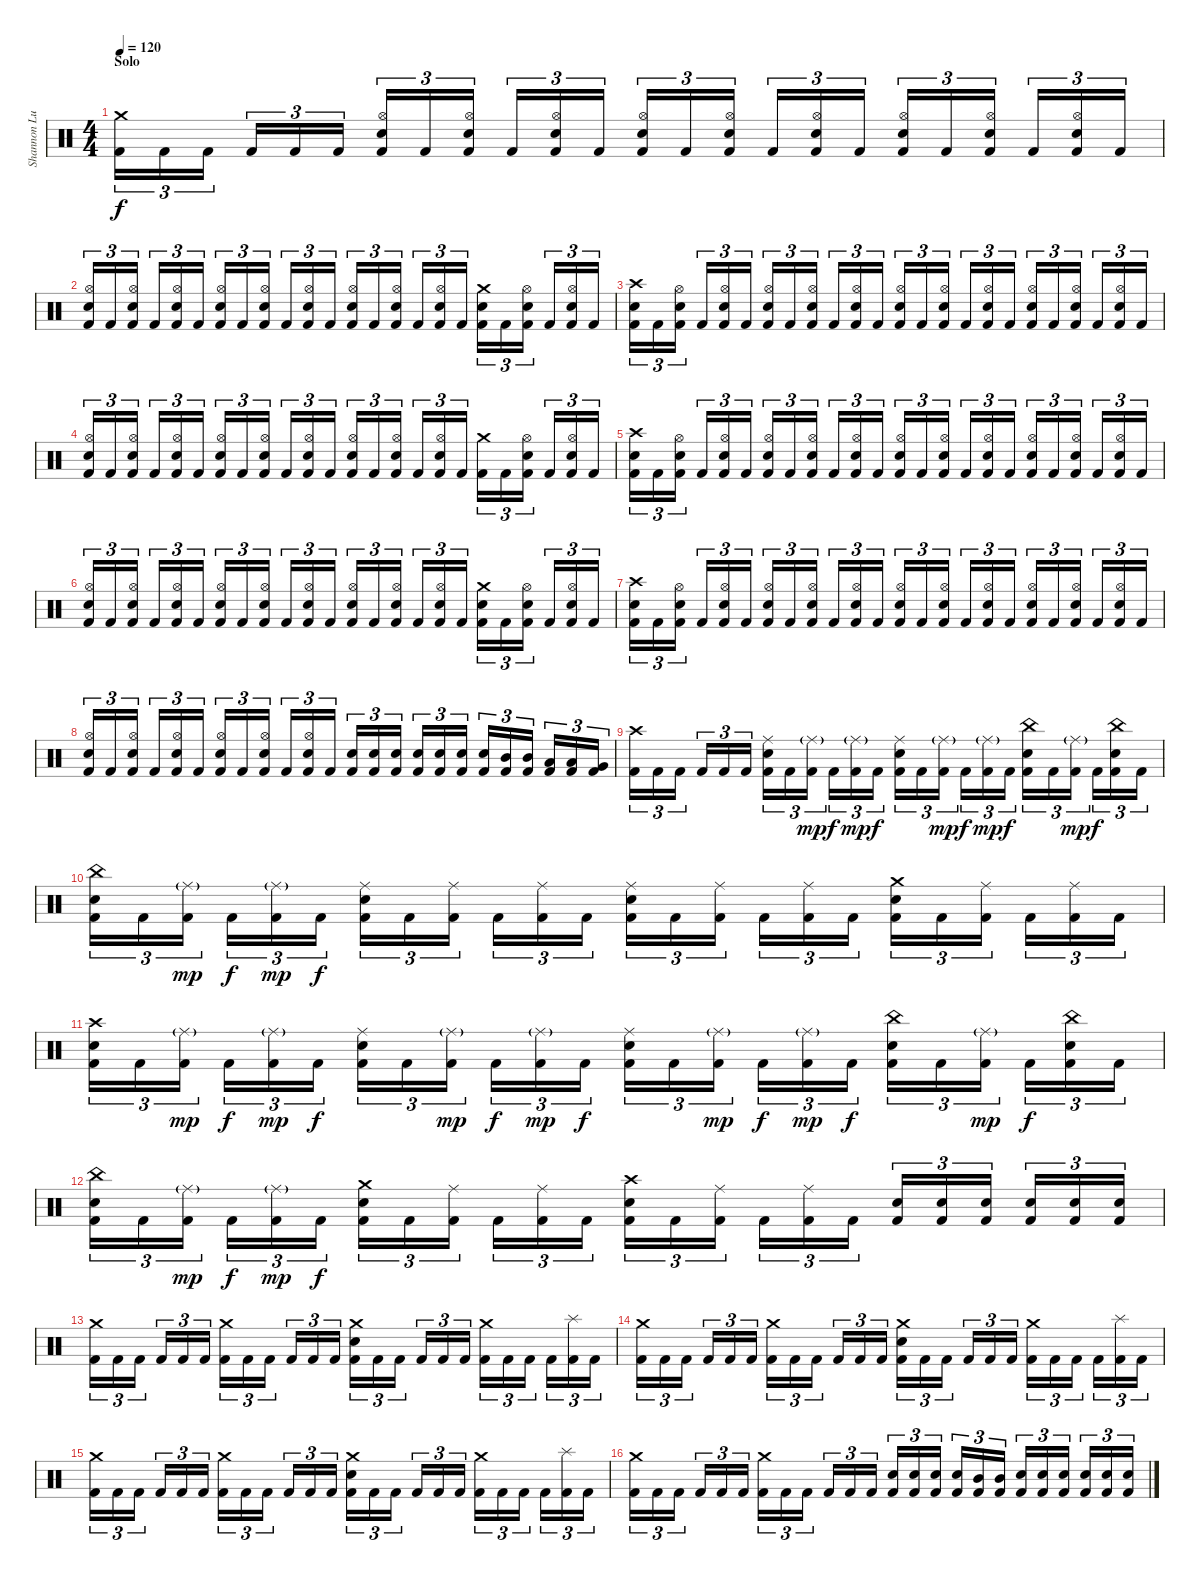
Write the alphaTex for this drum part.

\track ("Shannon Lucas (Drums)" "Shannon Lu") {instrument percussion}
\staff {score}
\articulation defaults
\ts (4 4)
\section ("" "Solo")
\tempo 120
\clef neutral
\ks c
("Crash medium (hit)" "Kick (hit) 2").16{tu (3 2) dy f} "Kick (hit) 2".16{tu (3 2)} "Kick (hit) 2".16{tu (3 2)} "Kick (hit) 2".16{tu (3 2)} "Kick (hit) 2".16{tu (3 2)} "Kick (hit) 2".16{tu (3 2)} ("Hi-Hat (open)" "Snare (hit) 2" "Kick (hit) 2").16{tu (3 2)} "Kick (hit) 2".16{tu (3 2)} ("Hi-Hat (open)" "Snare (hit) 2" "Kick (hit) 2").16{tu (3 2)} "Kick (hit) 2".16{tu (3 2)} ("Hi-Hat (open)" "Snare (hit) 2" "Kick (hit) 2").16{tu (3 2)} "Kick (hit) 2".16{tu (3 2)} ("Hi-Hat (open)" "Snare (hit) 2" "Kick (hit) 2").16{tu (3 2)} "Kick (hit) 2".16{tu (3 2)} ("Hi-Hat (open)" "Snare (hit) 2" "Kick (hit) 2").16{tu (3 2)} "Kick (hit) 2".16{tu (3 2)} ("Hi-Hat (open)" "Snare (hit) 2" "Kick (hit) 2").16{tu (3 2)} "Kick (hit) 2".16{tu (3 2)} ("Hi-Hat (open)" "Snare (hit) 2" "Kick (hit) 2").16{tu (3 2)} "Kick (hit) 2".16{tu (3 2)} ("Hi-Hat (open)" "Snare (hit) 2" "Kick (hit) 2").16{tu (3 2)} "Kick (hit) 2".16{tu (3 2)} ("Hi-Hat (open)" "Snare (hit) 2" "Kick (hit) 2").16{tu (3 2)} "Kick (hit) 2".16{tu (3 2)} |
("Hi-Hat (open)" "Snare (hit) 2" "Kick (hit) 2").16{tu (3 2)} "Kick (hit) 2".16{tu (3 2)} ("Hi-Hat (open)" "Snare (hit) 2" "Kick (hit) 2").16{tu (3 2)} "Kick (hit) 2".16{tu (3 2)} ("Hi-Hat (open)" "Snare (hit) 2" "Kick (hit) 2").16{tu (3 2)} "Kick (hit) 2".16{tu (3 2)} ("Hi-Hat (open)" "Snare (hit) 2" "Kick (hit) 2").16{tu (3 2)} "Kick (hit) 2".16{tu (3 2)} ("Hi-Hat (open)" "Snare (hit) 2" "Kick (hit) 2").16{tu (3 2)} "Kick (hit) 2".16{tu (3 2)} ("Hi-Hat (open)" "Snare (hit) 2" "Kick (hit) 2").16{tu (3 2)} "Kick (hit) 2".16{tu (3 2)} ("Hi-Hat (open)" "Snare (hit) 2" "Kick (hit) 2").16{tu (3 2)} "Kick (hit) 2".16{tu (3 2)} ("Hi-Hat (open)" "Snare (hit) 2" "Kick (hit) 2").16{tu (3 2)} "Kick (hit) 2".16{tu (3 2)} ("Hi-Hat (open)" "Snare (hit) 2" "Kick (hit) 2").16{tu (3 2)} "Kick (hit) 2".16{tu (3 2)} ("Crash medium (hit)" "Snare (hit) 2" "Kick (hit) 2").16{tu (3 2)} "Kick (hit) 2".16{tu (3 2)} ("Hi-Hat (open)" "Snare (hit) 2" "Kick (hit) 2").16{tu (3 2)} "Kick (hit) 2".16{tu (3 2)} ("Hi-Hat (open)" "Snare (hit) 2" "Kick (hit) 2").16{tu (3 2)} "Kick (hit) 2".16{tu (3 2)} |
("Crash high (hit)" "Snare (hit) 2" "Kick (hit) 2").16{tu (3 2)} "Kick (hit) 2".16{tu (3 2)} ("Hi-Hat (open)" "Snare (hit) 2" "Kick (hit) 2").16{tu (3 2)} "Kick (hit) 2".16{tu (3 2)} ("Hi-Hat (open)" "Snare (hit) 2" "Kick (hit) 2").16{tu (3 2)} "Kick (hit) 2".16{tu (3 2)} ("Hi-Hat (open)" "Snare (hit) 2" "Kick (hit) 2").16{tu (3 2)} "Kick (hit) 2".16{tu (3 2)} ("Hi-Hat (open)" "Snare (hit) 2" "Kick (hit) 2").16{tu (3 2)} "Kick (hit) 2".16{tu (3 2)} ("Hi-Hat (open)" "Snare (hit) 2" "Kick (hit) 2").16{tu (3 2)} "Kick (hit) 2".16{tu (3 2)} ("Hi-Hat (open)" "Snare (hit) 2" "Kick (hit) 2").16{tu (3 2)} "Kick (hit) 2".16{tu (3 2)} ("Hi-Hat (open)" "Snare (hit) 2" "Kick (hit) 2").16{tu (3 2)} "Kick (hit) 2".16{tu (3 2)} ("Hi-Hat (open)" "Snare (hit) 2" "Kick (hit) 2").16{tu (3 2)} "Kick (hit) 2".16{tu (3 2)} ("Hi-Hat (open)" "Snare (hit) 2" "Kick (hit) 2").16{tu (3 2)} "Kick (hit) 2".16{tu (3 2)} ("Hi-Hat (open)" "Snare (hit) 2" "Kick (hit) 2").16{tu (3 2)} "Kick (hit) 2".16{tu (3 2)} ("Hi-Hat (open)" "Snare (hit) 2" "Kick (hit) 2").16{tu (3 2)} "Kick (hit) 2".16{tu (3 2)} |
("Hi-Hat (open)" "Snare (hit) 2" "Kick (hit) 2").16{tu (3 2)} "Kick (hit) 2".16{tu (3 2)} ("Hi-Hat (open)" "Snare (hit) 2" "Kick (hit) 2").16{tu (3 2)} "Kick (hit) 2".16{tu (3 2)} ("Hi-Hat (open)" "Snare (hit) 2" "Kick (hit) 2").16{tu (3 2)} "Kick (hit) 2".16{tu (3 2)} ("Hi-Hat (open)" "Snare (hit) 2" "Kick (hit) 2").16{tu (3 2)} "Kick (hit) 2".16{tu (3 2)} ("Hi-Hat (open)" "Snare (hit) 2" "Kick (hit) 2").16{tu (3 2)} "Kick (hit) 2".16{tu (3 2)} ("Hi-Hat (open)" "Snare (hit) 2" "Kick (hit) 2").16{tu (3 2)} "Kick (hit) 2".16{tu (3 2)} ("Hi-Hat (open)" "Snare (hit) 2" "Kick (hit) 2").16{tu (3 2)} "Kick (hit) 2".16{tu (3 2)} ("Hi-Hat (open)" "Snare (hit) 2" "Kick (hit) 2").16{tu (3 2)} "Kick (hit) 2".16{tu (3 2)} ("Hi-Hat (open)" "Snare (hit) 2" "Kick (hit) 2").16{tu (3 2)} "Kick (hit) 2".16{tu (3 2)} ("Crash medium (hit)" "Kick (hit) 2").16{tu (3 2)} "Kick (hit) 2".16{tu (3 2)} ("Hi-Hat (open)" "Snare (hit) 2" "Kick (hit) 2").16{tu (3 2)} "Kick (hit) 2".16{tu (3 2)} ("Hi-Hat (open)" "Snare (hit) 2" "Kick (hit) 2").16{tu (3 2)} "Kick (hit) 2".16{tu (3 2)} |
("Crash high (hit)" "Snare (hit) 2" "Kick (hit) 2").16{tu (3 2)} "Kick (hit) 2".16{tu (3 2)} ("Hi-Hat (open)" "Snare (hit) 2" "Kick (hit) 2").16{tu (3 2)} "Kick (hit) 2".16{tu (3 2)} ("Hi-Hat (open)" "Snare (hit) 2" "Kick (hit) 2").16{tu (3 2)} "Kick (hit) 2".16{tu (3 2)} ("Hi-Hat (open)" "Snare (hit) 2" "Kick (hit) 2").16{tu (3 2)} "Kick (hit) 2".16{tu (3 2)} ("Hi-Hat (open)" "Snare (hit) 2" "Kick (hit) 2").16{tu (3 2)} "Kick (hit) 2".16{tu (3 2)} ("Hi-Hat (open)" "Snare (hit) 2" "Kick (hit) 2").16{tu (3 2)} "Kick (hit) 2".16{tu (3 2)} ("Hi-Hat (open)" "Snare (hit) 2" "Kick (hit) 2").16{tu (3 2)} "Kick (hit) 2".16{tu (3 2)} ("Hi-Hat (open)" "Snare (hit) 2" "Kick (hit) 2").16{tu (3 2)} "Kick (hit) 2".16{tu (3 2)} ("Hi-Hat (open)" "Snare (hit) 2" "Kick (hit) 2").16{tu (3 2)} "Kick (hit) 2".16{tu (3 2)} ("Hi-Hat (open)" "Snare (hit) 2" "Kick (hit) 2").16{tu (3 2)} "Kick (hit) 2".16{tu (3 2)} ("Hi-Hat (open)" "Snare (hit) 2" "Kick (hit) 2").16{tu (3 2)} "Kick (hit) 2".16{tu (3 2)} ("Hi-Hat (open)" "Snare (hit) 2" "Kick (hit) 2").16{tu (3 2)} "Kick (hit) 2".16{tu (3 2)} |
("Hi-Hat (open)" "Snare (hit) 2" "Kick (hit) 2").16{tu (3 2)} "Kick (hit) 2".16{tu (3 2)} ("Hi-Hat (open)" "Snare (hit) 2" "Kick (hit) 2").16{tu (3 2)} "Kick (hit) 2".16{tu (3 2)} ("Hi-Hat (open)" "Snare (hit) 2" "Kick (hit) 2").16{tu (3 2)} "Kick (hit) 2".16{tu (3 2)} ("Hi-Hat (open)" "Snare (hit) 2" "Kick (hit) 2").16{tu (3 2)} "Kick (hit) 2".16{tu (3 2)} ("Hi-Hat (open)" "Snare (hit) 2" "Kick (hit) 2").16{tu (3 2)} "Kick (hit) 2".16{tu (3 2)} ("Hi-Hat (open)" "Snare (hit) 2" "Kick (hit) 2").16{tu (3 2)} "Kick (hit) 2".16{tu (3 2)} ("Hi-Hat (open)" "Snare (hit) 2" "Kick (hit) 2").16{tu (3 2)} "Kick (hit) 2".16{tu (3 2)} ("Hi-Hat (open)" "Snare (hit) 2" "Kick (hit) 2").16{tu (3 2)} "Kick (hit) 2".16{tu (3 2)} ("Hi-Hat (open)" "Snare (hit) 2" "Kick (hit) 2").16{tu (3 2)} "Kick (hit) 2".16{tu (3 2)} ("Crash medium (hit)" "Snare (hit) 2" "Kick (hit) 2").16{tu (3 2)} "Kick (hit) 2".16{tu (3 2)} ("Hi-Hat (open)" "Snare (hit) 2" "Kick (hit) 2").16{tu (3 2)} "Kick (hit) 2".16{tu (3 2)} ("Hi-Hat (open)" "Snare (hit) 2" "Kick (hit) 2").16{tu (3 2)} "Kick (hit) 2".16{tu (3 2)} |
("Crash high (hit)" "Snare (hit) 2" "Kick (hit) 2").16{tu (3 2)} "Kick (hit) 2".16{tu (3 2)} ("Hi-Hat (open)" "Snare (hit) 2" "Kick (hit) 2").16{tu (3 2)} "Kick (hit) 2".16{tu (3 2)} ("Hi-Hat (open)" "Snare (hit) 2" "Kick (hit) 2").16{tu (3 2)} "Kick (hit) 2".16{tu (3 2)} ("Hi-Hat (open)" "Snare (hit) 2" "Kick (hit) 2").16{tu (3 2)} "Kick (hit) 2".16{tu (3 2)} ("Hi-Hat (open)" "Snare (hit) 2" "Kick (hit) 2").16{tu (3 2)} "Kick (hit) 2".16{tu (3 2)} ("Hi-Hat (open)" "Snare (hit) 2" "Kick (hit) 2").16{tu (3 2)} "Kick (hit) 2".16{tu (3 2)} ("Hi-Hat (open)" "Snare (hit) 2" "Kick (hit) 2").16{tu (3 2)} "Kick (hit) 2".16{tu (3 2)} ("Hi-Hat (open)" "Snare (hit) 2" "Kick (hit) 2").16{tu (3 2)} "Kick (hit) 2".16{tu (3 2)} ("Hi-Hat (open)" "Snare (hit) 2" "Kick (hit) 2").16{tu (3 2)} "Kick (hit) 2".16{tu (3 2)} ("Hi-Hat (open)" "Snare (hit) 2" "Kick (hit) 2").16{tu (3 2)} "Kick (hit) 2".16{tu (3 2)} ("Hi-Hat (open)" "Snare (hit) 2" "Kick (hit) 2").16{tu (3 2)} "Kick (hit) 2".16{tu (3 2)} ("Hi-Hat (open)" "Snare (hit) 2" "Kick (hit) 2").16{tu (3 2)} "Kick (hit) 2".16{tu (3 2)} |
("Hi-Hat (open)" "Snare (hit) 2" "Kick (hit) 2").16{tu (3 2)} "Kick (hit) 2".16{tu (3 2)} ("Hi-Hat (open)" "Snare (hit) 2" "Kick (hit) 2").16{tu (3 2)} "Kick (hit) 2".16{tu (3 2)} ("Hi-Hat (open)" "Snare (hit) 2" "Kick (hit) 2").16{tu (3 2)} "Kick (hit) 2".16{tu (3 2)} ("Hi-Hat (open)" "Snare (hit) 2" "Kick (hit) 2").16{tu (3 2)} "Kick (hit) 2".16{tu (3 2)} ("Hi-Hat (open)" "Snare (hit) 2" "Kick (hit) 2").16{tu (3 2)} "Kick (hit) 2".16{tu (3 2)} ("Hi-Hat (open)" "Snare (hit) 2" "Kick (hit) 2").16{tu (3 2)} "Kick (hit) 2".16{tu (3 2)} ("Snare (hit) 2" "Kick (hit) 2").16{tu (3 2)} ("Snare (hit) 2" "Kick (hit) 2").16{tu (3 2)} ("Snare (hit) 2" "Kick (hit) 2").16{tu (3 2)} ("Snare (hit) 2" "Kick (hit) 2").16{tu (3 2)} ("Snare (hit) 2" "Kick (hit) 2").16{tu (3 2)} ("Snare (hit) 2" "Kick (hit) 2").16{tu (3 2)} ("Snare (hit) 2" "Kick (hit) 2").16{tu (3 2)} ("Mid Tom (hit)" "Kick (hit) 2").16{tu (3 2)} ("Mid Tom (hit)" "Kick (hit) 2").16{tu (3 2)} ("Low Tom (hit)" "Kick (hit) 2").16{tu (3 2)} ("Low Tom (hit)" "Kick (hit) 2").16{tu (3 2)} ("Very Low Tom (hit)" "Kick (hit) 2").16{tu (3 2)} |
("Crash high (hit)" "Kick (hit) 2").16{tu (3 2)} "Kick (hit) 2".16{tu (3 2)} "Kick (hit) 2".16{tu (3 2)} "Kick (hit) 2".16{tu (3 2)} "Kick (hit) 2".16{tu (3 2)} "Kick (hit) 2".16{tu (3 2)} ("Ride (middle)" "Snare (hit) 2" "Kick (hit) 2").16{tu (3 2)} "Kick (hit) 2".16{tu (3 2)} ("Ride (middle)"{g} "Kick (hit) 2").16{tu (3 2) dy mp} "Kick (hit) 2".16{tu (3 2) dy f} ("Ride (middle)"{g} "Kick (hit) 2").16{tu (3 2) dy mp} "Kick (hit) 2".16{tu (3 2) dy f} ("Ride (middle)" "Snare (hit) 2" "Kick (hit) 2").16{tu (3 2)} "Kick (hit) 2".16{tu (3 2)} ("Ride (middle)"{g} "Kick (hit) 2").16{tu (3 2) dy mp} "Kick (hit) 2".16{tu (3 2) dy f} ("Ride (middle)"{g} "Kick (hit) 2").16{tu (3 2) dy mp} "Kick (hit) 2".16{tu (3 2) dy f} ("China (hit)" "Snare (hit) 2" "Kick (hit) 2").16{tu (3 2)} "Kick (hit) 2".16{tu (3 2)} ("Ride (middle)"{g} "Kick (hit) 2").16{tu (3 2) dy mp} "Kick (hit) 2".16{tu (3 2) dy f} ("China (hit)" "Snare (hit) 2" "Kick (hit) 2").16{tu (3 2)} "Kick (hit) 2".16{tu (3 2)} |
("China (hit)" "Snare (hit) 2" "Kick (hit) 2").16{tu (3 2)} "Kick (hit) 2".16{tu (3 2)} ("Ride (middle)"{g} "Kick (hit) 2").16{tu (3 2) dy mp} "Kick (hit) 2".16{tu (3 2) dy f} ("Ride (middle)"{g} "Kick (hit) 2").16{tu (3 2) dy mp} "Kick (hit) 2".16{tu (3 2) dy f} ("Ride (middle)" "Snare (hit) 2" "Kick (hit) 2").16{tu (3 2)} "Kick (hit) 2".16{tu (3 2)} ("Ride (middle)" "Kick (hit) 2").16{tu (3 2)} "Kick (hit) 2".16{tu (3 2)} ("Ride (middle)" "Kick (hit) 2").16{tu (3 2)} "Kick (hit) 2".16{tu (3 2)} ("Ride (middle)" "Snare (hit) 2" "Kick (hit) 2").16{tu (3 2)} "Kick (hit) 2".16{tu (3 2)} ("Ride (middle)" "Kick (hit) 2").16{tu (3 2)} "Kick (hit) 2".16{tu (3 2)} ("Ride (middle)" "Kick (hit) 2").16{tu (3 2)} "Kick (hit) 2".16{tu (3 2)} ("Crash medium (hit)" "Snare (hit) 2" "Kick (hit) 2").16{tu (3 2)} "Kick (hit) 2".16{tu (3 2)} ("Ride (middle)" "Kick (hit) 2").16{tu (3 2)} "Kick (hit) 2".16{tu (3 2)} ("Ride (middle)" "Kick (hit) 2").16{tu (3 2)} "Kick (hit) 2".16{tu (3 2)} |
("Crash high (hit)" "Snare (hit) 2" "Kick (hit) 2").16{tu (3 2)} "Kick (hit) 2".16{tu (3 2)} ("Ride (middle)"{g} "Kick (hit) 2").16{tu (3 2) dy mp} "Kick (hit) 2".16{tu (3 2) dy f} ("Ride (middle)"{g} "Kick (hit) 2").16{tu (3 2) dy mp} "Kick (hit) 2".16{tu (3 2) dy f} ("Ride (middle)" "Snare (hit) 2" "Kick (hit) 2").16{tu (3 2)} "Kick (hit) 2".16{tu (3 2)} ("Ride (middle)"{g} "Kick (hit) 2").16{tu (3 2) dy mp} "Kick (hit) 2".16{tu (3 2) dy f} ("Ride (middle)"{g} "Kick (hit) 2").16{tu (3 2) dy mp} "Kick (hit) 2".16{tu (3 2) dy f} ("Ride (middle)" "Snare (hit) 2" "Kick (hit) 2").16{tu (3 2)} "Kick (hit) 2".16{tu (3 2)} ("Ride (middle)"{g} "Kick (hit) 2").16{tu (3 2) dy mp} "Kick (hit) 2".16{tu (3 2) dy f} ("Ride (middle)"{g} "Kick (hit) 2").16{tu (3 2) dy mp} "Kick (hit) 2".16{tu (3 2) dy f} ("China (hit)" "Snare (hit) 2" "Kick (hit) 2").16{tu (3 2)} "Kick (hit) 2".16{tu (3 2)} ("Ride (middle)"{g} "Kick (hit) 2").16{tu (3 2) dy mp} "Kick (hit) 2".16{tu (3 2) dy f} ("China (hit)" "Snare (hit) 2" "Kick (hit) 2").16{tu (3 2)} "Kick (hit) 2".16{tu (3 2)} |
("China (hit)" "Snare (hit) 2" "Kick (hit) 2").16{tu (3 2)} "Kick (hit) 2".16{tu (3 2)} ("Ride (middle)"{g} "Kick (hit) 2").16{tu (3 2) dy mp} "Kick (hit) 2".16{tu (3 2) dy f} ("Ride (middle)"{g} "Kick (hit) 2").16{tu (3 2) dy mp} "Kick (hit) 2".16{tu (3 2) dy f} ("Crash medium (hit)" "Snare (hit) 2" "Kick (hit) 2").16{tu (3 2)} "Kick (hit) 2".16{tu (3 2)} ("Ride (middle)" "Kick (hit) 2").16{tu (3 2)} "Kick (hit) 2".16{tu (3 2)} ("Ride (middle)" "Kick (hit) 2").16{tu (3 2)} "Kick (hit) 2".16{tu (3 2)} ("Crash high (hit)" "Snare (hit) 2" "Kick (hit) 2").16{tu (3 2)} "Kick (hit) 2".16{tu (3 2)} ("Ride (middle)" "Kick (hit) 2").16{tu (3 2)} "Kick (hit) 2".16{tu (3 2)} ("Ride (middle)" "Kick (hit) 2").16{tu (3 2)} "Kick (hit) 2".16{tu (3 2)} ("Snare (hit) 2" "Kick (hit) 2").16{tu (3 2)} ("Snare (hit) 2" "Kick (hit) 2").16{tu (3 2)} ("Snare (hit) 2" "Kick (hit) 2").16{tu (3 2)} ("Snare (hit) 2" "Kick (hit) 2").16{tu (3 2)} ("Snare (hit) 2" "Kick (hit) 2").16{tu (3 2)} ("Snare (hit) 2" "Kick (hit) 2").16{tu (3 2)} |
("Crash medium (hit)" "Kick (hit) 2").16{tu (3 2)} "Kick (hit) 2".16{tu (3 2)} "Kick (hit) 2".16{tu (3 2)} "Kick (hit) 2".16{tu (3 2)} "Kick (hit) 2".16{tu (3 2)} "Kick (hit) 2".16{tu (3 2)} ("Crash medium (hit)" "Kick (hit) 2").16{tu (3 2)} "Kick (hit) 2".16{tu (3 2)} "Kick (hit) 2".16{tu (3 2)} "Kick (hit) 2".16{tu (3 2)} "Kick (hit) 2".16{tu (3 2)} "Kick (hit) 2".16{tu (3 2)} ("Crash medium (hit)" "Snare (hit) 2" "Kick (hit) 2").16{tu (3 2)} "Kick (hit) 2".16{tu (3 2)} "Kick (hit) 2".16{tu (3 2)} "Kick (hit) 2".16{tu (3 2)} "Kick (hit) 2".16{tu (3 2)} "Kick (hit) 2".16{tu (3 2)} ("Crash medium (hit)" "Kick (hit) 2").16{tu (3 2)} "Kick (hit) 2".16{tu (3 2)} "Kick (hit) 2".16{tu (3 2)} "Kick (hit) 2".16{tu (3 2)} ("Splash (hit)" "Kick (hit) 2").16{tu (3 2)} "Kick (hit) 2".16{tu (3 2)} |
("Crash medium (hit)" "Kick (hit) 2").16{tu (3 2)} "Kick (hit) 2".16{tu (3 2)} "Kick (hit) 2".16{tu (3 2)} "Kick (hit) 2".16{tu (3 2)} "Kick (hit) 2".16{tu (3 2)} "Kick (hit) 2".16{tu (3 2)} ("Crash medium (hit)" "Kick (hit) 2").16{tu (3 2)} "Kick (hit) 2".16{tu (3 2)} "Kick (hit) 2".16{tu (3 2)} "Kick (hit) 2".16{tu (3 2)} "Kick (hit) 2".16{tu (3 2)} "Kick (hit) 2".16{tu (3 2)} ("Crash medium (hit)" "Snare (hit) 2" "Kick (hit) 2").16{tu (3 2)} "Kick (hit) 2".16{tu (3 2)} "Kick (hit) 2".16{tu (3 2)} "Kick (hit) 2".16{tu (3 2)} "Kick (hit) 2".16{tu (3 2)} "Kick (hit) 2".16{tu (3 2)} ("Crash medium (hit)" "Kick (hit) 2").16{tu (3 2)} "Kick (hit) 2".16{tu (3 2)} "Kick (hit) 2".16{tu (3 2)} "Kick (hit) 2".16{tu (3 2)} ("Splash (hit)" "Kick (hit) 2").16{tu (3 2)} "Kick (hit) 2".16{tu (3 2)} |
("Crash medium (hit)" "Kick (hit) 2").16{tu (3 2)} "Kick (hit) 2".16{tu (3 2)} "Kick (hit) 2".16{tu (3 2)} "Kick (hit) 2".16{tu (3 2)} "Kick (hit) 2".16{tu (3 2)} "Kick (hit) 2".16{tu (3 2)} ("Crash medium (hit)" "Kick (hit) 2").16{tu (3 2)} "Kick (hit) 2".16{tu (3 2)} "Kick (hit) 2".16{tu (3 2)} "Kick (hit) 2".16{tu (3 2)} "Kick (hit) 2".16{tu (3 2)} "Kick (hit) 2".16{tu (3 2)} ("Crash medium (hit)" "Snare (hit) 2" "Kick (hit) 2").16{tu (3 2)} "Kick (hit) 2".16{tu (3 2)} "Kick (hit) 2".16{tu (3 2)} "Kick (hit) 2".16{tu (3 2)} "Kick (hit) 2".16{tu (3 2)} "Kick (hit) 2".16{tu (3 2)} ("Crash medium (hit)" "Kick (hit) 2").16{tu (3 2)} "Kick (hit) 2".16{tu (3 2)} "Kick (hit) 2".16{tu (3 2)} "Kick (hit) 2".16{tu (3 2)} ("Splash (hit)" "Kick (hit) 2").16{tu (3 2)} "Kick (hit) 2".16{tu (3 2)} |
("Crash medium (hit)" "Kick (hit) 2").16{tu (3 2)} "Kick (hit) 2".16{tu (3 2)} "Kick (hit) 2".16{tu (3 2)} "Kick (hit) 2".16{tu (3 2)} "Kick (hit) 2".16{tu (3 2)} "Kick (hit) 2".16{tu (3 2)} ("Crash medium (hit)" "Kick (hit) 2").16{tu (3 2)} "Kick (hit) 2".16{tu (3 2)} "Kick (hit) 2".16{tu (3 2)} "Kick (hit) 2".16{tu (3 2)} "Kick (hit) 2".16{tu (3 2)} "Kick (hit) 2".16{tu (3 2)} ("Snare (hit) 2" "Kick (hit) 2").16{tu (3 2)} ("Snare (hit) 2" "Kick (hit) 2").16{tu (3 2)} ("Snare (hit) 2" "Kick (hit) 2").16{tu (3 2)} ("Snare (hit) 2" "Kick (hit) 2").16{tu (3 2)} ("Mid Tom (hit)" "Kick (hit) 2").16{tu (3 2)} ("Mid Tom (hit)" "Kick (hit) 2").16{tu (3 2)} ("Snare (hit) 2" "Kick (hit) 2").16{tu (3 2)} ("Snare (hit) 2" "Kick (hit) 2").16{tu (3 2)} ("Snare (hit) 2" "Kick (hit) 2").16{tu (3 2)} ("Snare (hit) 2" "Kick (hit) 2").16{tu (3 2)} ("Snare (hit) 2" "Kick (hit) 2").16{tu (3 2)} ("Snare (hit) 2" "Kick (hit) 2").16{tu (3 2)}
